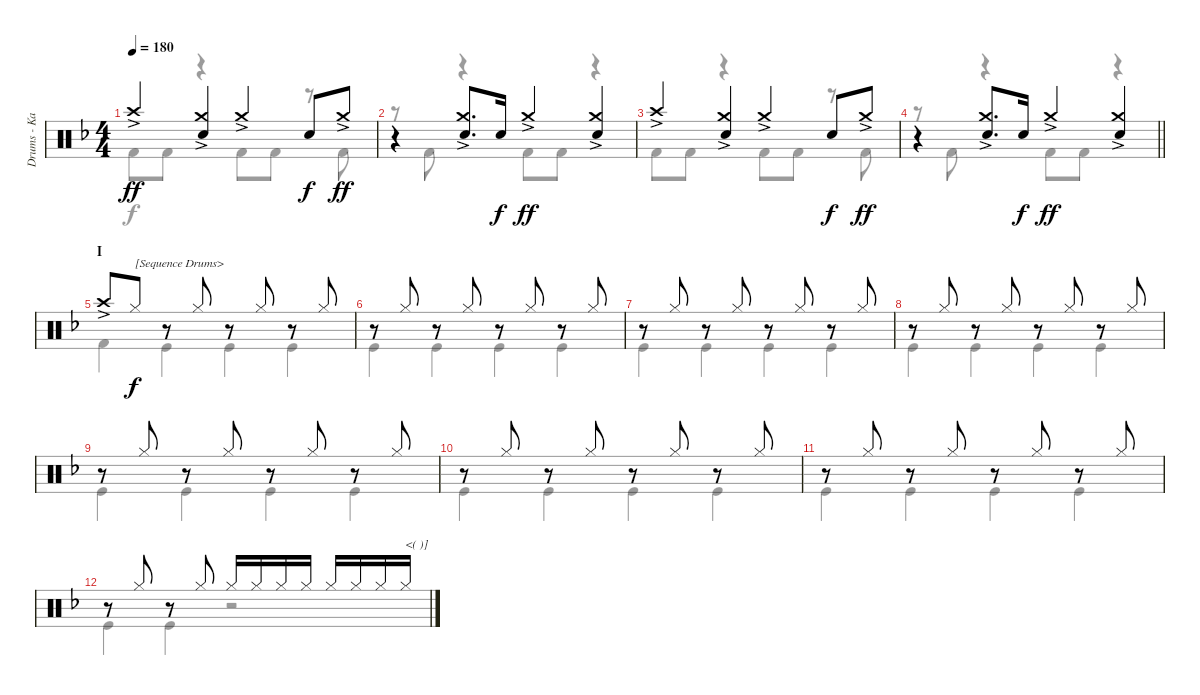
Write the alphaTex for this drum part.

\track ("Drums - Kai" "Drums - Ka") {instrument percussion}
\staff {score}
\articulation defaults
\voice
\ts (4 4)
\tempo 180
\clef neutral
\ks f "Crash high (hit)"{ac}.4{dy ff}
("Crash medium (hit)"{ac} "Snare (hit) 2").4 "Crash medium (hit)"{ac}.4 "Snare (hit) 2".8{dy f} "Crash medium (hit)"{ac}.8{dy ff} |
r.4 ("Crash medium (hit)"{ac} "Snare (hit) 2").8{d} "Snare (hit) 2".16{dy f} "Crash medium (hit)"{ac}.4{dy ff} ("Crash medium (hit)"{ac} "Snare (hit) 2").4 |
"Crash high (hit)"{ac}.4 ("Crash medium (hit)"{ac} "Snare (hit) 2").4 "Crash medium (hit)"{ac}.4 "Snare (hit) 2".8{dy f} "Crash medium (hit)"{ac}.8{dy ff} |
\barLineRight lightlight
r.4 ("Crash medium (hit)"{ac} "Snare (hit) 2").8{d} "Snare (hit) 2".16{dy f} "Crash medium (hit)"{ac}.4{dy ff} ("Crash medium (hit)"{ac} "Snare (hit) 2").4 |
\section ("" "I")
"Crash high (hit)"{ac}.8 "Hi-Hat (closed)".8{txt "[Sequence Drums>" dy f} r.8 "Hi-Hat (closed)".8 r.8 "Hi-Hat (closed)".8 r.8 "Hi-Hat (closed)".8 |
r.8 "Hi-Hat (closed)".8 r.8 "Hi-Hat (closed)".8 r.8 "Hi-Hat (closed)".8 r.8 "Hi-Hat (closed)".8 |
r.8 "Hi-Hat (closed)".8 r.8 "Hi-Hat (closed)".8 r.8 "Hi-Hat (closed)".8 r.8 "Hi-Hat (closed)".8 |
r.8 "Hi-Hat (closed)".8 r.8 "Hi-Hat (closed)".8 r.8 "Hi-Hat (closed)".8 r.8 "Hi-Hat (closed)".8 |
r.8 "Hi-Hat (closed)".8 r.8 "Hi-Hat (closed)".8 r.8 "Hi-Hat (closed)".8 r.8 "Hi-Hat (closed)".8 |
r.8 "Hi-Hat (closed)".8 r.8 "Hi-Hat (closed)".8 r.8 "Hi-Hat (closed)".8 r.8 "Hi-Hat (closed)".8 |
r.8 "Hi-Hat (closed)".8 r.8 "Hi-Hat (closed)".8 r.8 "Hi-Hat (closed)".8 r.8 "Hi-Hat (closed)".8 |
r.8 "Hi-Hat (closed)".8 r.8 "Hi-Hat (closed)".8 "Hi-Hat (closed)".16 "Hi-Hat (closed)".16 "Hi-Hat (closed)".16 "Hi-Hat (closed)".16 "Hi-Hat (closed)".16 "Hi-Hat (closed)".16 "Hi-Hat (closed)".16 "Hi-Hat (closed)".16{txt "<( )]"}
\voice
\clef neutral
\ottava regular
\simile none
\ks f "Kick (hit) 2".8{dy f} "Kick (hit) 2".8
r.4 "Kick (hit) 2".8 "Kick (hit) 2".8 r.8 "Kick (hit) 2".8 |
r.8 "Kick (hit) 2".8 r.4 "Kick (hit) 2".8 "Kick (hit) 2".8 r.4 |
"Kick (hit) 2".8 "Kick (hit) 2".8 r.4 "Kick (hit) 2".8 "Kick (hit) 2".8 r.8 "Kick (hit) 2".8 |
\barLineRight lightlight
r.8 "Kick (hit) 2".8 r.4 "Kick (hit) 2".8 "Kick (hit) 2".8 r.4 |
"Kick (hit) 2".4 "Kick (hit)".4 "Kick (hit)".4 "Kick (hit)".4 |
"Kick (hit)".4 "Kick (hit)".4 "Kick (hit)".4 "Kick (hit)".4 |
"Kick (hit)".4 "Kick (hit)".4 "Kick (hit)".4 "Kick (hit)".4 |
"Kick (hit)".4 "Kick (hit)".4 "Kick (hit)".4 "Kick (hit)".4 |
"Kick (hit)".4 "Kick (hit)".4 "Kick (hit)".4 "Kick (hit)".4 |
"Kick (hit)".4 "Kick (hit)".4 "Kick (hit)".4 "Kick (hit)".4 |
"Kick (hit)".4 "Kick (hit)".4 "Kick (hit)".4 "Kick (hit)".4 |
"Kick (hit)".4 "Kick (hit)".4 r.2
